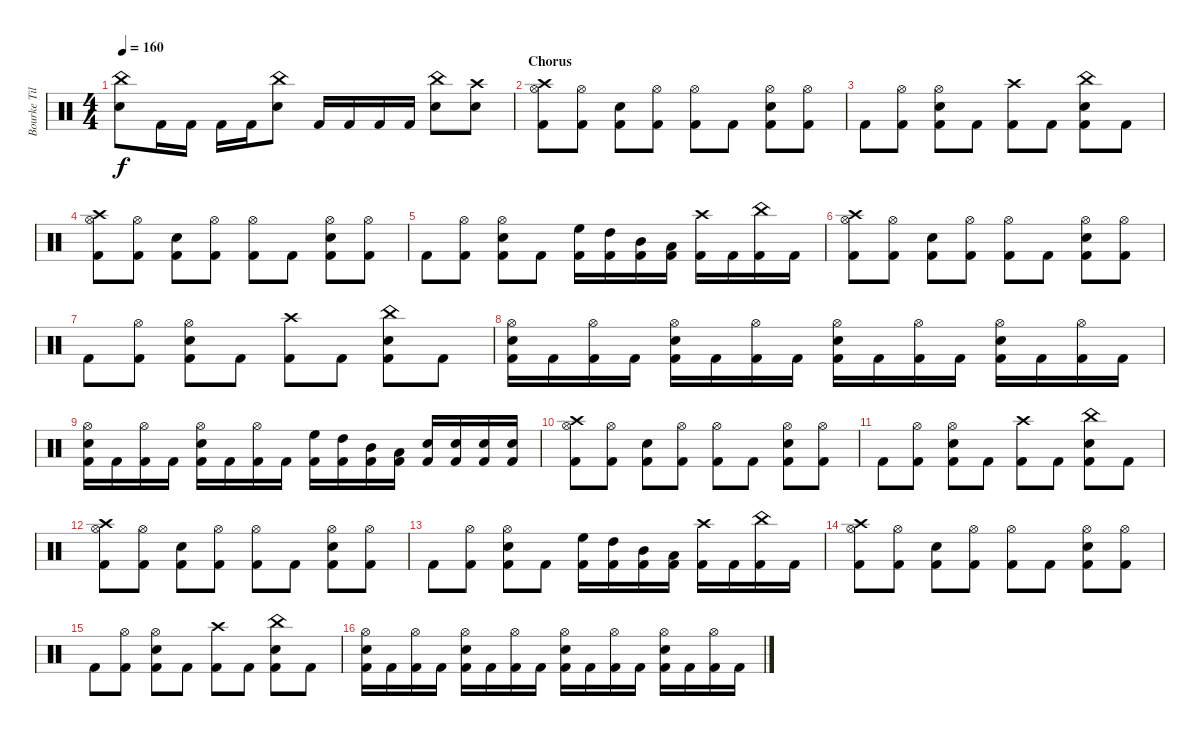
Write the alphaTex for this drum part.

\track ("Bourke Tillman" "Bourke Til") {instrument percussion}
\staff {score}
\articulation defaults
\ts (4 4)
\tempo 160
\clef neutral
\ks c
("China (hit)" "Electric Snare (hit)").8{dy f} "Kick (hit) 2".16 "Kick (hit) 2".16 "Kick (hit) 2".16 "Kick (hit) 2".16 ("China (hit)" "Electric Snare (hit)").8 "Kick (hit) 2".16 "Kick (hit) 2".16 "Kick (hit) 2".16 "Kick (hit) 2".16 ("China (hit)" "Electric Snare (hit)").8 ("Crash high (hit)" "Electric Snare (hit)").8 |
\section ("" "Chorus")
("Crash high (hit)" "Hi-Hat (open)" "Kick (hit) 2").8 ("Hi-Hat (open)" "Kick (hit) 2").8 ("Electric Snare (hit)" "Kick (hit) 2").8 ("Hi-Hat (open)" "Kick (hit) 2").8 ("Hi-Hat (open)" "Kick (hit) 2").8 "Kick (hit) 2".8 ("Hi-Hat (open)" "Electric Snare (hit)" "Kick (hit) 2").8 ("Hi-Hat (open)" "Kick (hit) 2").8 |
"Kick (hit) 2".8 ("Hi-Hat (open)" "Kick (hit) 2").8 ("Hi-Hat (open)" "Electric Snare (hit)" "Kick (hit) 2").8 "Kick (hit) 2".8 ("Crash high (hit)" "Kick (hit) 2").8 "Kick (hit) 2".8 ("China (hit)" "Electric Snare (hit)" "Kick (hit) 2").8 "Kick (hit) 2".8 |
("Crash high (hit)" "Hi-Hat (open)" "Kick (hit) 2").8 ("Hi-Hat (open)" "Kick (hit) 2").8 ("Electric Snare (hit)" "Kick (hit) 2").8 ("Hi-Hat (open)" "Kick (hit) 2").8 ("Hi-Hat (open)" "Kick (hit) 2").8 "Kick (hit) 2".8 ("Hi-Hat (open)" "Electric Snare (hit)" "Kick (hit) 2").8 ("Hi-Hat (open)" "Kick (hit) 2").8 |
"Kick (hit) 2".8 ("Hi-Hat (open)" "Kick (hit) 2").8 ("Hi-Hat (open)" "Electric Snare (hit)" "Kick (hit) 2").8 "Kick (hit) 2".8 ("High Floor Tom (hit)" "Kick (hit) 2").16 ("High Tom (hit)" "Kick (hit) 2").16 ("Mid Tom (hit)" "Kick (hit) 2").16 ("Low Tom (hit)" "Kick (hit) 2").16 ("Crash high (hit)" "Kick (hit) 2").16 "Kick (hit) 2".16 ("China (hit)" "Kick (hit) 2").16 "Kick (hit) 2".16 |
("Crash high (hit)" "Hi-Hat (open)" "Kick (hit) 2").8 ("Hi-Hat (open)" "Kick (hit) 2").8 ("Electric Snare (hit)" "Kick (hit) 2").8 ("Hi-Hat (open)" "Kick (hit) 2").8 ("Hi-Hat (open)" "Kick (hit) 2").8 "Kick (hit) 2".8 ("Hi-Hat (open)" "Electric Snare (hit)" "Kick (hit) 2").8 ("Hi-Hat (open)" "Kick (hit) 2").8 |
"Kick (hit) 2".8 ("Hi-Hat (open)" "Kick (hit) 2").8 ("Hi-Hat (open)" "Electric Snare (hit)" "Kick (hit) 2").8 "Kick (hit) 2".8 ("Crash high (hit)" "Kick (hit) 2").8 "Kick (hit) 2".8 ("China (hit)" "Electric Snare (hit)" "Kick (hit) 2").8 "Kick (hit) 2".8 |
("Hi-Hat (open)" "Electric Snare (hit)" "Kick (hit) 2").16 "Kick (hit) 2".16 ("Hi-Hat (open)" "Kick (hit) 2").16 "Kick (hit) 2".16 ("Hi-Hat (open)" "Electric Snare (hit)" "Kick (hit) 2").16 "Kick (hit) 2".16 ("Hi-Hat (open)" "Kick (hit) 2").16 "Kick (hit) 2".16 ("Hi-Hat (open)" "Electric Snare (hit)" "Kick (hit) 2").16 "Kick (hit) 2".16 ("Hi-Hat (open)" "Kick (hit) 2").16 "Kick (hit) 2".16 ("Hi-Hat (open)" "Electric Snare (hit)" "Kick (hit) 2").16 "Kick (hit) 2".16 ("Hi-Hat (open)" "Kick (hit) 2").16 "Kick (hit) 2".16 |
("Hi-Hat (open)" "Electric Snare (hit)" "Kick (hit) 2").16 "Kick (hit) 2".16 ("Hi-Hat (open)" "Kick (hit) 2").16 "Kick (hit) 2".16 ("Hi-Hat (open)" "Electric Snare (hit)" "Kick (hit) 2").16 "Kick (hit) 2".16 ("Hi-Hat (open)" "Kick (hit) 2").16 "Kick (hit) 2".16 ("High Floor Tom (hit)" "Kick (hit) 2").16 ("High Tom (hit)" "Kick (hit) 2").16 ("Mid Tom (hit)" "Kick (hit) 2").16 ("Low Tom (hit)" "Kick (hit) 2").16 ("Electric Snare (hit)" "Kick (hit) 2").16 ("Electric Snare (hit)" "Kick (hit) 2").16 ("Electric Snare (hit)" "Kick (hit) 2").16 ("Electric Snare (hit)" "Kick (hit) 2").16 |
("Crash high (hit)" "Hi-Hat (open)" "Kick (hit) 2").8 ("Hi-Hat (open)" "Kick (hit) 2").8 ("Electric Snare (hit)" "Kick (hit) 2").8 ("Hi-Hat (open)" "Kick (hit) 2").8 ("Hi-Hat (open)" "Kick (hit) 2").8 "Kick (hit) 2".8 ("Hi-Hat (open)" "Electric Snare (hit)" "Kick (hit) 2").8 ("Hi-Hat (open)" "Kick (hit) 2").8 |
"Kick (hit) 2".8 ("Hi-Hat (open)" "Kick (hit) 2").8 ("Hi-Hat (open)" "Electric Snare (hit)" "Kick (hit) 2").8 "Kick (hit) 2".8 ("Crash high (hit)" "Kick (hit) 2").8 "Kick (hit) 2".8 ("China (hit)" "Electric Snare (hit)" "Kick (hit) 2").8 "Kick (hit) 2".8 |
("Crash high (hit)" "Hi-Hat (open)" "Kick (hit) 2").8 ("Hi-Hat (open)" "Kick (hit) 2").8 ("Electric Snare (hit)" "Kick (hit) 2").8 ("Hi-Hat (open)" "Kick (hit) 2").8 ("Hi-Hat (open)" "Kick (hit) 2").8 "Kick (hit) 2".8 ("Hi-Hat (open)" "Electric Snare (hit)" "Kick (hit) 2").8 ("Hi-Hat (open)" "Kick (hit) 2").8 |
"Kick (hit) 2".8 ("Hi-Hat (open)" "Kick (hit) 2").8 ("Hi-Hat (open)" "Electric Snare (hit)" "Kick (hit) 2").8 "Kick (hit) 2".8 ("High Floor Tom (hit)" "Kick (hit) 2").16 ("High Tom (hit)" "Kick (hit) 2").16 ("Mid Tom (hit)" "Kick (hit) 2").16 ("Low Tom (hit)" "Kick (hit) 2").16 ("Crash high (hit)" "Kick (hit) 2").16 "Kick (hit) 2".16 ("China (hit)" "Kick (hit) 2").16 "Kick (hit) 2".16 |
("Crash high (hit)" "Hi-Hat (open)" "Kick (hit) 2").8 ("Hi-Hat (open)" "Kick (hit) 2").8 ("Electric Snare (hit)" "Kick (hit) 2").8 ("Hi-Hat (open)" "Kick (hit) 2").8 ("Hi-Hat (open)" "Kick (hit) 2").8 "Kick (hit) 2".8 ("Hi-Hat (open)" "Electric Snare (hit)" "Kick (hit) 2").8 ("Hi-Hat (open)" "Kick (hit) 2").8 |
"Kick (hit) 2".8 ("Hi-Hat (open)" "Kick (hit) 2").8 ("Hi-Hat (open)" "Electric Snare (hit)" "Kick (hit) 2").8 "Kick (hit) 2".8 ("Crash high (hit)" "Kick (hit) 2").8 "Kick (hit) 2".8 ("China (hit)" "Electric Snare (hit)" "Kick (hit) 2").8 "Kick (hit) 2".8 |
("Hi-Hat (open)" "Electric Snare (hit)" "Kick (hit) 2").16 "Kick (hit) 2".16 ("Hi-Hat (open)" "Kick (hit) 2").16 "Kick (hit) 2".16 ("Hi-Hat (open)" "Electric Snare (hit)" "Kick (hit) 2").16 "Kick (hit) 2".16 ("Hi-Hat (open)" "Kick (hit) 2").16 "Kick (hit) 2".16 ("Hi-Hat (open)" "Electric Snare (hit)" "Kick (hit) 2").16 "Kick (hit) 2".16 ("Hi-Hat (open)" "Kick (hit) 2").16 "Kick (hit) 2".16 ("Hi-Hat (open)" "Electric Snare (hit)" "Kick (hit) 2").16 "Kick (hit) 2".16 ("Hi-Hat (open)" "Kick (hit) 2").16 "Kick (hit) 2".16
